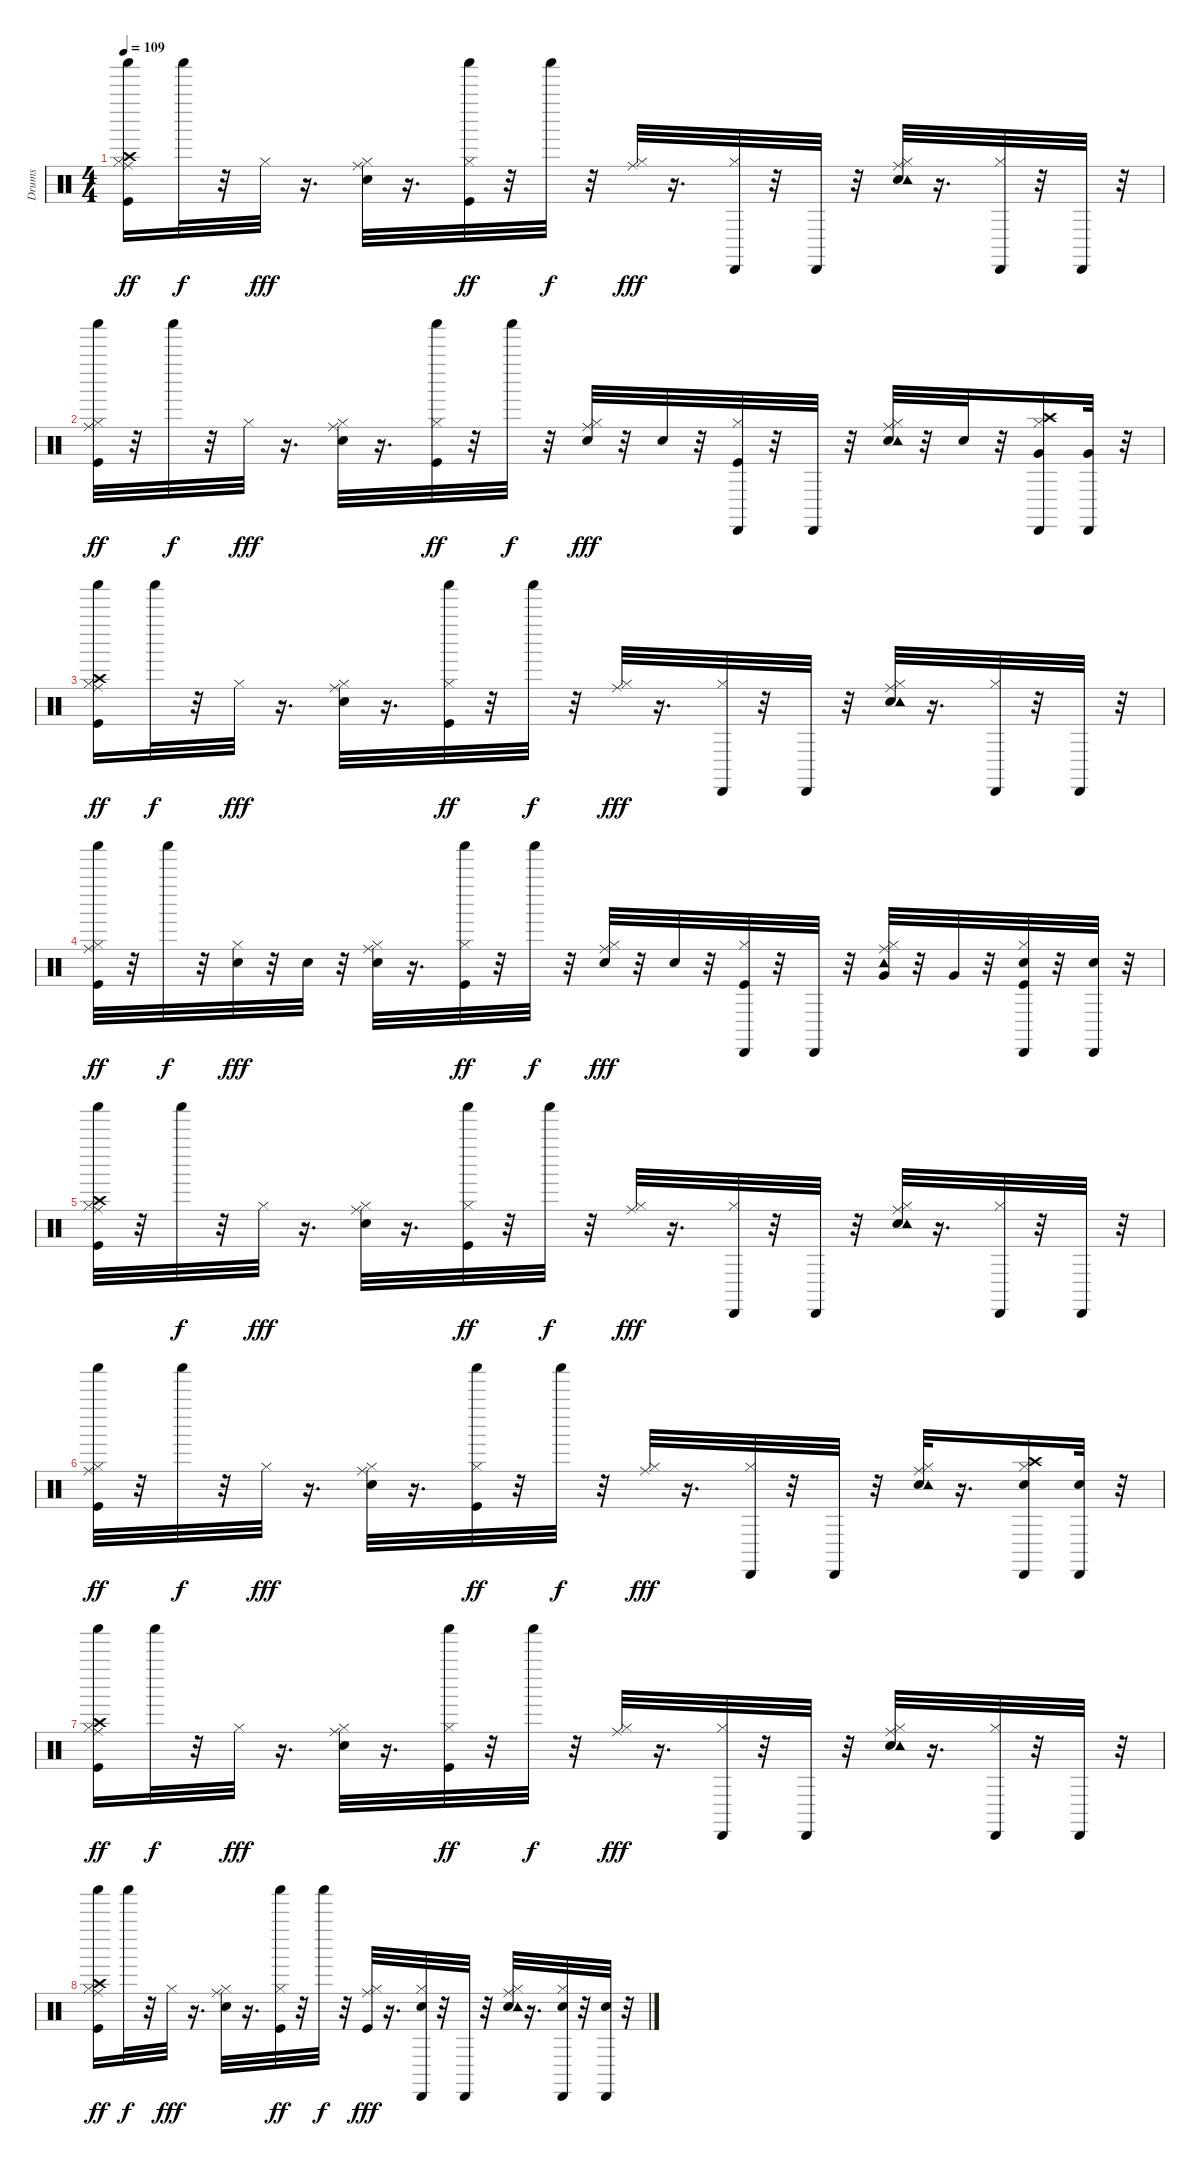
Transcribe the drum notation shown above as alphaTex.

\track ("Drums               " "Drums     ") {instrument percussion}
\staff {score}
\articulation defaults
\ts (4 4)
\tempo 109
\clef neutral
\ks c
("Kick (hit)" "Hi-Hat (closed)" "Crash high (hit)" "Ride (middle)" "Shaker (hit)").16{dy ff} "Shaker (hit)".32{dy f} r.32 "Hi-Hat (closed)".32{dy fff} r.16{d} ("Electric Snare (hit)" "Hi-Hat (closed)" "Ride (middle)").32 r.16{d} ("Kick (hit)" "Hi-Hat (closed)" "Shaker (hit)").32{dy ff} r.32 "Shaker (hit)".32{dy f} r.32 ("Hi-Hat (closed)" "Ride (middle)").32{dy fff} r.16{d} ("Hi-Hat (closed)" "Cabasa (hit)").32 r.32 "Cabasa (hit)".32 r.32 ("Electric Snare (hit)" "Hi-Hat (closed)" "Ride (middle)" "Tambourine (hit)").32 r.16{d} ("Hi-Hat (closed)" "Cabasa (hit)").32 r.32 "Cabasa (hit)".32 r.32 |
("Kick (hit)" "Hi-Hat (closed)" "Ride (middle)" "Shaker (hit)").32{dy ff} r.32 "Shaker (hit)".32{dy f} r.32 "Hi-Hat (closed)".32{dy fff} r.16{d} ("Electric Snare (hit)" "Hi-Hat (closed)" "Ride (middle)").32 r.16{d} ("Kick (hit)" "Hi-Hat (closed)" "Shaker (hit)").32{dy ff} r.32 "Shaker (hit)".32{dy f} r.32 ("Electric Snare (hit)" "Hi-Hat (closed)" "Ride (middle)").32{dy fff} r.32 "Electric Snare (hit)".32 r.32 ("Kick (hit)" "Hi-Hat (closed)" "Cabasa (hit)").32 r.32 "Cabasa (hit)".32 r.32 ("Electric Snare (hit)" "Hi-Hat (closed)" "Ride (middle)" "Tambourine (hit)").32 r.32 "Electric Snare (hit)".32 r.32 ("Hi-Hat (closed)" "Very Low Tom (hit)" "Crash high (hit)" "Cabasa (hit)").16 ("Very Low Tom (hit)" "Cabasa (hit)").32 r.32 |
("Kick (hit)" "Hi-Hat (closed)" "Crash high (hit)" "Ride (middle)" "Shaker (hit)").16{dy ff} "Shaker (hit)".32{dy f} r.32 "Hi-Hat (closed)".32{dy fff} r.16{d} ("Electric Snare (hit)" "Hi-Hat (closed)" "Ride (middle)").32 r.16{d} ("Kick (hit)" "Hi-Hat (closed)" "Shaker (hit)").32{dy ff} r.32 "Shaker (hit)".32{dy f} r.32 ("Hi-Hat (closed)" "Ride (middle)").32{dy fff} r.16{d} ("Hi-Hat (closed)" "Cabasa (hit)").32 r.32 "Cabasa (hit)".32 r.32 ("Electric Snare (hit)" "Hi-Hat (closed)" "Ride (middle)" "Tambourine (hit)").32 r.16{d} ("Hi-Hat (closed)" "Cabasa (hit)").32 r.32 "Cabasa (hit)".32 r.32 |
("Kick (hit)" "Hi-Hat (closed)" "Ride (middle)" "Shaker (hit)").32{dy ff} r.32 "Shaker (hit)".32{dy f} r.32 ("Electric Snare (hit)" "Hi-Hat (closed)").32{dy fff} r.32 "Electric Snare (hit)".32 r.32 ("Electric Snare (hit)" "Hi-Hat (closed)" "Ride (middle)").32 r.16{d} ("Kick (hit)" "Hi-Hat (closed)" "Shaker (hit)").32{dy ff} r.32 "Shaker (hit)".32{dy f} r.32 ("Electric Snare (hit)" "Hi-Hat (closed)" "Ride (middle)").32{dy fff} r.32 "Electric Snare (hit)".32 r.32 ("Kick (hit)" "Hi-Hat (closed)" "Cabasa (hit)").32 r.32 "Cabasa (hit)".32 r.32 ("Hi-Hat (closed)" "Very Low Tom (hit)" "Ride (middle)" "Tambourine (hit)").32 r.32 "Very Low Tom (hit)".32 r.32 ("Kick (hit)" "Electric Snare (hit)" "Hi-Hat (closed)" "Cabasa (hit)").32 r.32 ("Electric Snare (hit)" "Cabasa (hit)").32 r.32 |
("Kick (hit)" "Hi-Hat (closed)" "Shaker (hit)" "Crash high (hit)" "Ride (middle)").32 r.32 "Shaker (hit)".32{dy f} r.32 "Hi-Hat (closed)".32{dy fff} r.16{d} ("Electric Snare (hit)" "Hi-Hat (closed)" "Ride (middle)").32 r.16{d} ("Kick (hit)" "Hi-Hat (closed)" "Shaker (hit)").32{dy ff} r.32 "Shaker (hit)".32{dy f} r.32 ("Hi-Hat (closed)" "Ride (middle)").32{dy fff} r.16{d} ("Hi-Hat (closed)" "Cabasa (hit)").32 r.32 "Cabasa (hit)".32 r.32 ("Electric Snare (hit)" "Hi-Hat (closed)" "Ride (middle)" "Tambourine (hit)").32 r.16{d} ("Hi-Hat (closed)" "Cabasa (hit)").32 r.32 "Cabasa (hit)".32 r.32 |
("Kick (hit)" "Hi-Hat (closed)" "Ride (middle)" "Shaker (hit)").32{dy ff} r.32 "Shaker (hit)".32{dy f} r.32 "Hi-Hat (closed)".32{dy fff} r.16{d} ("Electric Snare (hit)" "Hi-Hat (closed)" "Ride (middle)").32 r.16{d} ("Kick (hit)" "Hi-Hat (closed)" "Shaker (hit)").32{dy ff} r.32 "Shaker (hit)".32{dy f} r.32 ("Hi-Hat (closed)" "Ride (middle)").32{dy fff} r.16{d} ("Hi-Hat (closed)" "Cabasa (hit)").32 r.32 "Cabasa (hit)".32 r.32 ("Electric Snare (hit)" "Hi-Hat (closed)" "Ride (middle)" "Tambourine (hit)").32 r.16{d} ("Electric Snare (hit)" "Hi-Hat (closed)" "Crash high (hit)" "Cabasa (hit)").16 ("Electric Snare (hit)" "Cabasa (hit)").32 r.32 |
("Kick (hit)" "Hi-Hat (closed)" "Crash high (hit)" "Ride (middle)" "Shaker (hit)").16{dy ff} "Shaker (hit)".32{dy f} r.32 "Hi-Hat (closed)".32{dy fff} r.16{d} ("Electric Snare (hit)" "Hi-Hat (closed)" "Ride (middle)").32 r.16{d} ("Kick (hit)" "Hi-Hat (closed)" "Shaker (hit)").32{dy ff} r.32 "Shaker (hit)".32{dy f} r.32 ("Hi-Hat (closed)" "Ride (middle)").32{dy fff} r.16{d} ("Hi-Hat (closed)" "Cabasa (hit)").32 r.32 "Cabasa (hit)".32 r.32 ("Electric Snare (hit)" "Hi-Hat (closed)" "Ride (middle)" "Tambourine (hit)").32 r.16{d} ("Hi-Hat (closed)" "Cabasa (hit)").32 r.32 "Cabasa (hit)".32 r.32 |
("Kick (hit)" "Hi-Hat (closed)" "Crash high (hit)" "Ride (middle)" "Shaker (hit)").16{dy ff} "Shaker (hit)".32{dy f} r.32 "Hi-Hat (closed)".32{dy fff} r.16{d} ("Electric Snare (hit)" "Hi-Hat (closed)" "Ride (middle)").32 r.16{d} ("Kick (hit)" "Hi-Hat (closed)" "Shaker (hit)").32{dy ff} r.32 "Shaker (hit)".32{dy f} r.32 ("Kick (hit)" "Hi-Hat (closed)" "Ride (middle)").32{dy fff} r.16{d} ("Electric Snare (hit)" "Hi-Hat (closed)" "Cabasa (hit)").32 r.32 "Cabasa (hit)".32 r.32 ("Electric Snare (hit)" "Hi-Hat (closed)" "Ride (middle)" "Tambourine (hit)").32 r.16{d} ("Electric Snare (hit)" "Hi-Hat (closed)" "Cabasa (hit)").32 r.32 ("Electric Snare (hit)" "Cabasa (hit)").32 r.32
